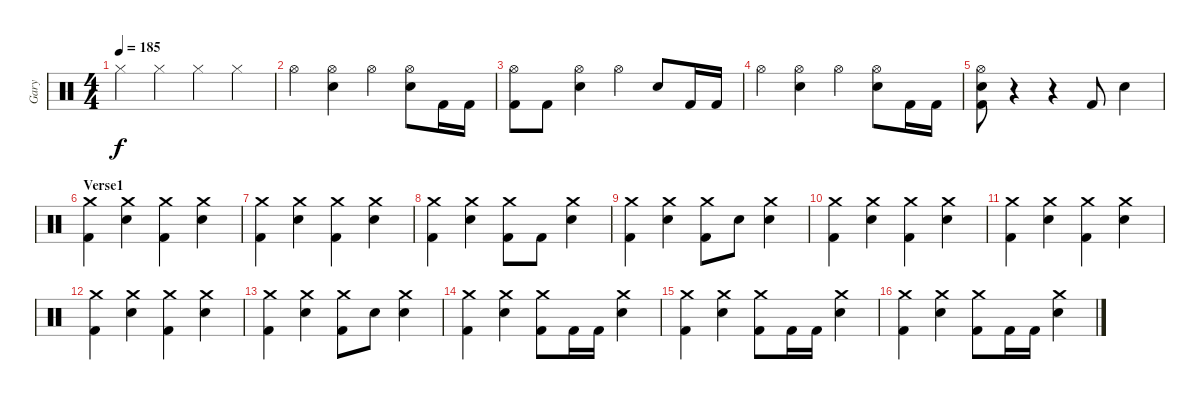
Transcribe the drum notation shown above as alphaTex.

\track ("Gary" "Gary") {instrument percussion}
\staff {score}
\articulation defaults
\ts (4 4)
\tempo 185
\clef neutral
\ks c "Hi-Hat (closed)".4{dy f} "Hi-Hat (closed)".4 "Hi-Hat (closed)".4 "Hi-Hat (closed)".4
|
"Hi-Hat (open)".4 ("Snare (hit) 2" "Hi-Hat (open)").4 "Hi-Hat (open)".4 ("Snare (hit) 2" "Hi-Hat (open)").8 "Kick (hit) 2".16 "Kick (hit) 2".16 |
("Kick (hit) 2" "Hi-Hat (open)").8 "Kick (hit) 2".8 ("Snare (hit) 2" "Hi-Hat (open)").4 "Hi-Hat (open)".4 "Snare (hit) 2".8 "Kick (hit) 2".16 "Kick (hit) 2".16 |
"Hi-Hat (open)".4 ("Snare (hit) 2" "Hi-Hat (open)").4 "Hi-Hat (open)".4 ("Snare (hit) 2" "Hi-Hat (open)").8 "Kick (hit) 2".16 "Kick (hit) 2".16 |
("Kick (hit) 2" "Snare (hit) 2" "Hi-Hat (open)").8 r.4 r.4 "Kick (hit) 2".8 "Electric Snare (hit)".4 |
\section ("" "Verse1")
("Kick (hit) 2" "Crash medium (hit)").4 ("Electric Snare (hit)" "Crash medium (hit)").4 ("Kick (hit) 2" "Crash medium (hit)").4 ("Electric Snare (hit)" "Crash medium (hit)").4 |
("Kick (hit) 2" "Crash medium (hit)").4 ("Electric Snare (hit)" "Crash medium (hit)").4 ("Kick (hit) 2" "Crash medium (hit)").4 ("Electric Snare (hit)" "Crash medium (hit)").4 |
("Kick (hit) 2" "Crash medium (hit)").4 ("Electric Snare (hit)" "Crash medium (hit)").4 ("Kick (hit) 2" "Crash medium (hit)").8 "Kick (hit) 2".8 ("Electric Snare (hit)" "Crash medium (hit)").4 |
("Kick (hit) 2" "Crash medium (hit)").4 ("Electric Snare (hit)" "Crash medium (hit)").4 ("Kick (hit) 2" "Crash medium (hit)").8 "Electric Snare (hit)".8 ("Electric Snare (hit)" "Crash medium (hit)").4 |
("Kick (hit) 2" "Crash medium (hit)").4 ("Electric Snare (hit)" "Crash medium (hit)").4 ("Kick (hit) 2" "Crash medium (hit)").4 ("Electric Snare (hit)" "Crash medium (hit)").4 |
("Kick (hit) 2" "Crash medium (hit)").4 ("Electric Snare (hit)" "Crash medium (hit)").4 ("Kick (hit) 2" "Crash medium (hit)").4 ("Electric Snare (hit)" "Crash medium (hit)").4 |
("Kick (hit) 2" "Crash medium (hit)").4 ("Electric Snare (hit)" "Crash medium (hit)").4 ("Kick (hit) 2" "Crash medium (hit)").4 ("Electric Snare (hit)" "Crash medium (hit)").4 |
("Kick (hit) 2" "Crash medium (hit)").4 ("Electric Snare (hit)" "Crash medium (hit)").4 ("Kick (hit) 2" "Crash medium (hit)").8 "Electric Snare (hit)".8 ("Electric Snare (hit)" "Crash medium (hit)").4 |
("Kick (hit) 2" "Crash medium (hit)").4 ("Electric Snare (hit)" "Crash medium (hit)").4 ("Kick (hit) 2" "Crash medium (hit)").8 "Kick (hit) 2".16 "Kick (hit) 2".16 ("Electric Snare (hit)" "Crash medium (hit)").4 |
("Kick (hit) 2" "Crash medium (hit)").4 ("Electric Snare (hit)" "Crash medium (hit)").4 ("Kick (hit) 2" "Crash medium (hit)").8 "Kick (hit) 2".16 "Kick (hit) 2".16 ("Electric Snare (hit)" "Crash medium (hit)").4 |
("Kick (hit) 2" "Crash medium (hit)").4 ("Electric Snare (hit)" "Crash medium (hit)").4 ("Kick (hit) 2" "Crash medium (hit)").8 "Kick (hit) 2".16 "Kick (hit) 2".16 ("Electric Snare (hit)" "Crash medium (hit)").4
